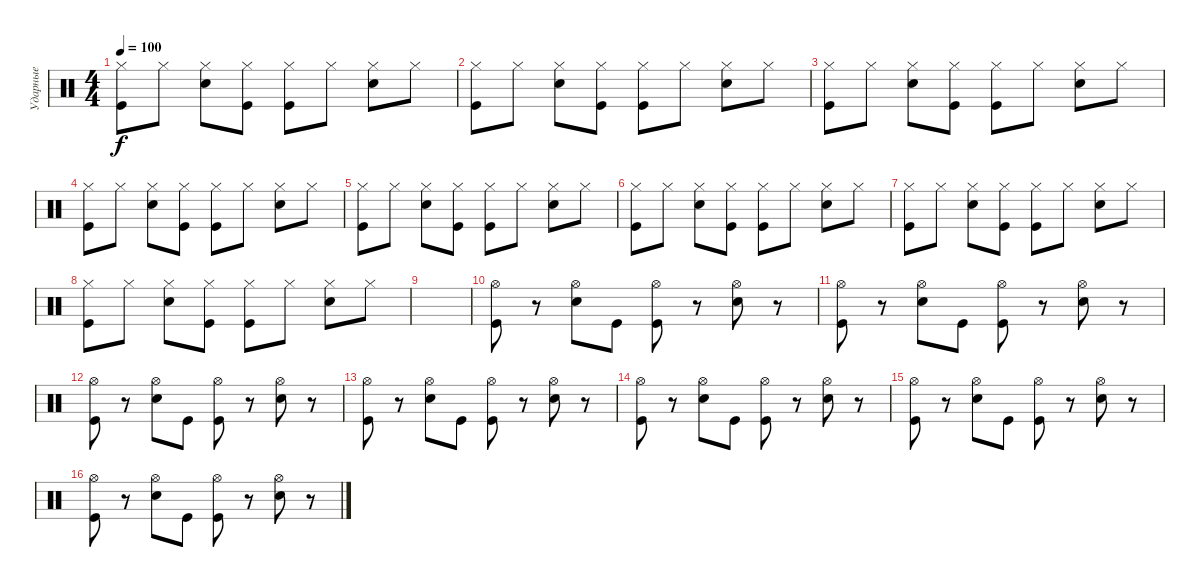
\track ("Ударные" "Ударные") {instrument percussion}
\staff
\articulation defaults
\ts (4 4)
\tempo 100
\clef neutral
\ks c
("Hi-Hat (closed)" "Kick (hit)").8{dy f} "Hi-Hat (closed)".8 ("Hi-Hat (closed)" "Snare (hit) 2").8 ("Hi-Hat (closed)" "Kick (hit)").8 ("Hi-Hat (closed)" "Kick (hit)").8 "Hi-Hat (closed)".8 ("Hi-Hat (closed)" "Snare (hit) 2").8 "Hi-Hat (closed)".8 |
("Hi-Hat (closed)" "Kick (hit)").8 "Hi-Hat (closed)".8 ("Hi-Hat (closed)" "Snare (hit) 2").8 ("Hi-Hat (closed)" "Kick (hit)").8 ("Hi-Hat (closed)" "Kick (hit)").8 "Hi-Hat (closed)".8 ("Hi-Hat (closed)" "Snare (hit) 2").8 "Hi-Hat (closed)".8 |
("Hi-Hat (closed)" "Kick (hit)").8 "Hi-Hat (closed)".8 ("Hi-Hat (closed)" "Snare (hit) 2").8 ("Hi-Hat (closed)" "Kick (hit)").8 ("Hi-Hat (closed)" "Kick (hit)").8 "Hi-Hat (closed)".8 ("Hi-Hat (closed)" "Snare (hit) 2").8 "Hi-Hat (closed)".8 |
("Hi-Hat (closed)" "Kick (hit)").8 "Hi-Hat (closed)".8 ("Hi-Hat (closed)" "Snare (hit) 2").8 ("Hi-Hat (closed)" "Kick (hit)").8 ("Hi-Hat (closed)" "Kick (hit)").8 "Hi-Hat (closed)".8 ("Hi-Hat (closed)" "Snare (hit) 2").8 "Hi-Hat (closed)".8 |
("Hi-Hat (closed)" "Kick (hit)").8 "Hi-Hat (closed)".8 ("Hi-Hat (closed)" "Snare (hit) 2").8 ("Hi-Hat (closed)" "Kick (hit)").8 ("Hi-Hat (closed)" "Kick (hit)").8 "Hi-Hat (closed)".8 ("Hi-Hat (closed)" "Snare (hit) 2").8 "Hi-Hat (closed)".8 |
("Hi-Hat (closed)" "Kick (hit)").8 "Hi-Hat (closed)".8 ("Hi-Hat (closed)" "Snare (hit) 2").8 ("Hi-Hat (closed)" "Kick (hit)").8 ("Hi-Hat (closed)" "Kick (hit)").8 "Hi-Hat (closed)".8 ("Hi-Hat (closed)" "Snare (hit) 2").8 "Hi-Hat (closed)".8 |
("Hi-Hat (closed)" "Kick (hit)").8 "Hi-Hat (closed)".8 ("Hi-Hat (closed)" "Snare (hit) 2").8 ("Hi-Hat (closed)" "Kick (hit)").8 ("Hi-Hat (closed)" "Kick (hit)").8 "Hi-Hat (closed)".8 ("Hi-Hat (closed)" "Snare (hit) 2").8 "Hi-Hat (closed)".8 |
("Hi-Hat (closed)" "Kick (hit)").8 "Hi-Hat (closed)".8 ("Hi-Hat (closed)" "Snare (hit) 2").8 ("Hi-Hat (closed)" "Kick (hit)").8 ("Hi-Hat (closed)" "Kick (hit)").8 "Hi-Hat (closed)".8 ("Hi-Hat (closed)" "Snare (hit) 2").8 "Hi-Hat (closed)".8 |
|
("Hi-Hat (open)" "Kick (hit)").8 r.8 ("Hi-Hat (open)" "Snare (hit) 2").8 "Kick (hit)".8 ("Hi-Hat (open)" "Kick (hit)").8 r.8 ("Hi-Hat (open)" "Snare (hit) 2").8 r.8 |
("Hi-Hat (open)" "Kick (hit)").8 r.8 ("Hi-Hat (open)" "Snare (hit) 2").8 "Kick (hit)".8 ("Hi-Hat (open)" "Kick (hit)").8 r.8 ("Hi-Hat (open)" "Snare (hit) 2").8 r.8 |
("Hi-Hat (open)" "Kick (hit)").8 r.8 ("Hi-Hat (open)" "Snare (hit) 2").8 "Kick (hit)".8 ("Hi-Hat (open)" "Kick (hit)").8 r.8 ("Hi-Hat (open)" "Snare (hit) 2").8 r.8 |
("Hi-Hat (open)" "Kick (hit)").8 r.8 ("Hi-Hat (open)" "Snare (hit) 2").8 "Kick (hit)".8 ("Hi-Hat (open)" "Kick (hit)").8 r.8 ("Hi-Hat (open)" "Snare (hit) 2").8 r.8 |
("Hi-Hat (open)" "Kick (hit)").8 r.8 ("Hi-Hat (open)" "Snare (hit) 2").8 "Kick (hit)".8 ("Hi-Hat (open)" "Kick (hit)").8 r.8 ("Hi-Hat (open)" "Snare (hit) 2").8 r.8 |
("Hi-Hat (open)" "Kick (hit)").8 r.8 ("Hi-Hat (open)" "Snare (hit) 2").8 "Kick (hit)".8 ("Hi-Hat (open)" "Kick (hit)").8 r.8 ("Hi-Hat (open)" "Snare (hit) 2").8 r.8 |
("Hi-Hat (open)" "Kick (hit)").8 r.8 ("Hi-Hat (open)" "Snare (hit) 2").8 "Kick (hit)".8 ("Hi-Hat (open)" "Kick (hit)").8 r.8 ("Hi-Hat (open)" "Snare (hit) 2").8 r.8
